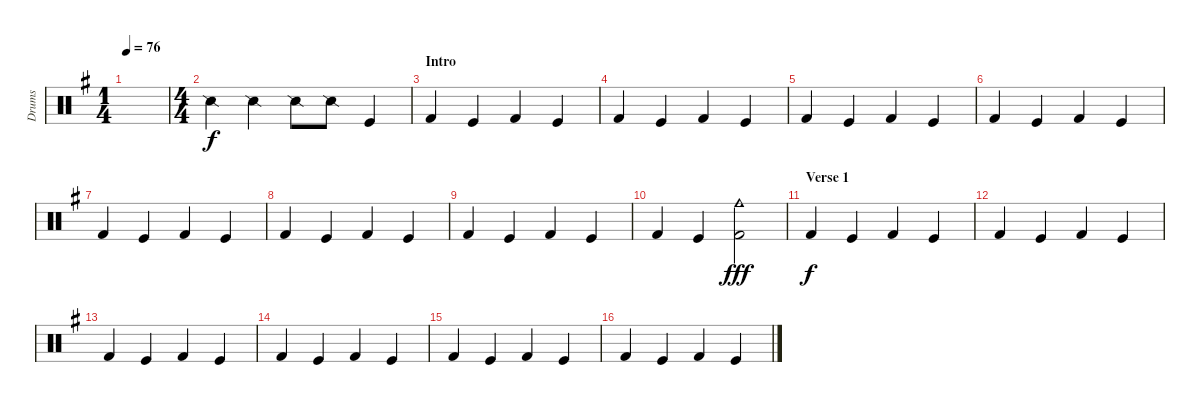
\track ("Drums " "Drums ") {instrument percussion}
\staff {score}
\articulation defaults
\ts (1 4)
\tempo 76
\clef neutral
\ks eminor
|
\ts (4 4)
"Snare (side stick) 2".4 "Snare (side stick) 2".4 "Snare (side stick) 2".8 "Snare (side stick) 2".8 "Kick (hit)".4 |
\section ("" "Intro")
"Kick (hit) 2".4{dy f} "Kick (hit)".4 "Kick (hit) 2".4 "Kick (hit)".4 |
"Kick (hit) 2".4 "Kick (hit)".4 "Kick (hit) 2".4 "Kick (hit)".4 |
"Kick (hit) 2".4 "Kick (hit)".4 "Kick (hit) 2".4 "Kick (hit)".4 |
"Kick (hit) 2".4 "Kick (hit)".4 "Kick (hit) 2".4 "Kick (hit)".4 |
"Kick (hit) 2".4 "Kick (hit)".4 "Kick (hit) 2".4 "Kick (hit)".4 |
"Kick (hit) 2".4 "Kick (hit)".4 "Kick (hit) 2".4 "Kick (hit)".4 |
"Kick (hit) 2".4 "Kick (hit)".4 "Kick (hit) 2".4 "Kick (hit)".4 |
"Kick (hit) 2".4 "Kick (hit)".4 ("Cowbell medium (hit)" "Kick (hit) 2").2{dy fff} |
\section ("" "Verse 1")
"Kick (hit) 2".4{dy f} "Kick (hit)".4 "Kick (hit) 2".4 "Kick (hit)".4 |
"Kick (hit) 2".4 "Kick (hit)".4 "Kick (hit) 2".4 "Kick (hit)".4 |
"Kick (hit) 2".4 "Kick (hit)".4 "Kick (hit) 2".4 "Kick (hit)".4 |
"Kick (hit) 2".4 "Kick (hit)".4 "Kick (hit) 2".4 "Kick (hit)".4 |
"Kick (hit) 2".4 "Kick (hit)".4 "Kick (hit) 2".4 "Kick (hit)".4 |
"Kick (hit) 2".4 "Kick (hit)".4 "Kick (hit) 2".4 "Kick (hit)".4
